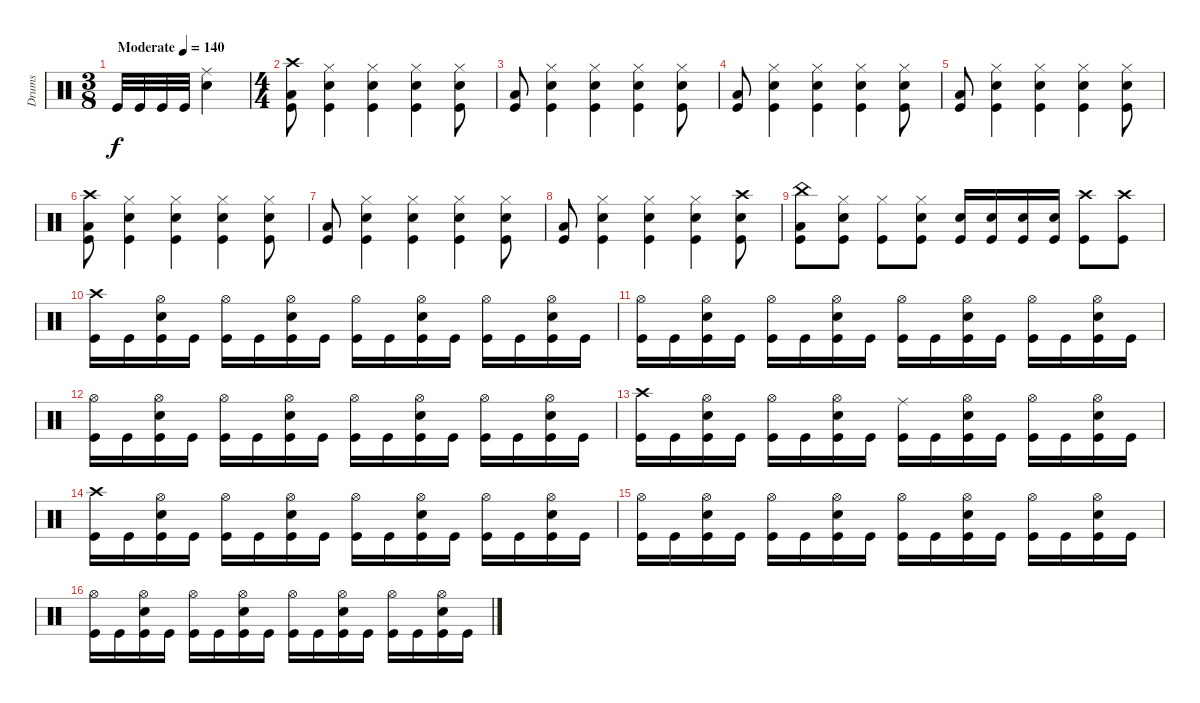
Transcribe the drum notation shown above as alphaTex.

\track ("Drums" "Drums") {instrument percussion}
\staff {score}
\articulation defaults
\ts (3 8)
\tempo (140 "Moderate")
\clef neutral
\ks c "Kick (hit)".32{dy f} "Kick (hit)".32 "Kick (hit)".32 "Kick (hit)".32
("Snare (hit) 2" "Ride (middle)").4 |
\ts (4 4)
("Kick (hit)" "Low Tom (hit)" "Crash high (hit)").8 ("Snare (hit) 2" "Hi-Hat (closed)" "Kick (hit)").4 ("Hi-Hat (closed)" "Snare (hit) 2" "Kick (hit)").4 ("Hi-Hat (closed)" "Snare (hit) 2" "Kick (hit)").4 ("Hi-Hat (closed)" "Snare (hit) 2" "Kick (hit)").8 |
("Kick (hit)" "Low Tom (hit)").8 ("Snare (hit) 2" "Hi-Hat (closed)" "Kick (hit)").4 ("Hi-Hat (closed)" "Snare (hit) 2" "Kick (hit)").4 ("Hi-Hat (closed)" "Snare (hit) 2" "Kick (hit)").4 ("Hi-Hat (closed)" "Snare (hit) 2" "Kick (hit)").8 |
("Kick (hit)" "Low Tom (hit)").8 ("Snare (hit) 2" "Hi-Hat (closed)" "Kick (hit)").4 ("Hi-Hat (closed)" "Snare (hit) 2" "Kick (hit)").4 ("Hi-Hat (closed)" "Snare (hit) 2" "Kick (hit)").4 ("Hi-Hat (closed)" "Snare (hit) 2" "Kick (hit)").8 |
("Kick (hit)" "Low Tom (hit)").8 ("Snare (hit) 2" "Hi-Hat (closed)" "Kick (hit)").4 ("Hi-Hat (closed)" "Snare (hit) 2" "Kick (hit)").4 ("Hi-Hat (closed)" "Snare (hit) 2" "Kick (hit)").4 ("Hi-Hat (closed)" "Snare (hit) 2" "Kick (hit)").8 |
("Kick (hit)" "Low Tom (hit)" "Crash high (hit)").8 ("Snare (hit) 2" "Hi-Hat (closed)" "Kick (hit)").4 ("Hi-Hat (closed)" "Snare (hit) 2" "Kick (hit)").4 ("Hi-Hat (closed)" "Snare (hit) 2" "Kick (hit)").4 ("Hi-Hat (closed)" "Snare (hit) 2" "Kick (hit)").8 |
("Kick (hit)" "Low Tom (hit)").8 ("Snare (hit) 2" "Hi-Hat (closed)" "Kick (hit)").4 ("Hi-Hat (closed)" "Snare (hit) 2" "Kick (hit)").4 ("Hi-Hat (closed)" "Snare (hit) 2" "Kick (hit)").4 ("Hi-Hat (closed)" "Snare (hit) 2" "Kick (hit)").8 |
("Kick (hit)" "Low Tom (hit)").8 ("Snare (hit) 2" "Hi-Hat (closed)" "Kick (hit)").4 ("Hi-Hat (closed)" "Snare (hit) 2" "Kick (hit)").4 ("Hi-Hat (closed)" "Snare (hit) 2" "Kick (hit)").4 ("Crash high (hit)" "Snare (hit) 2" "Kick (hit)").8 |
("Kick (hit)" "Low Tom (hit)" "China (hit)").8 ("Hi-Hat (closed)" "Kick (hit)" "Snare (hit) 2").8 ("Hi-Hat (closed)" "Kick (hit)").8 ("Hi-Hat (closed)" "Kick (hit)" "Snare (hit) 2").8 ("Snare (hit) 2" "Kick (hit)").16 ("Snare (hit) 2" "Kick (hit)").16 ("Snare (hit) 2" "Kick (hit)").16 ("Snare (hit) 2" "Kick (hit)").16 ("Crash high (hit)" "Kick (hit)").8 ("Crash high (hit)" "Kick (hit)").8 |
("Kick (hit)" "Crash high (hit)").16 "Kick (hit)".16 ("Kick (hit)" "Snare (hit) 2" "Hi-Hat (open)").16 "Kick (hit)".16 ("Kick (hit)" "Hi-Hat (open)").16 "Kick (hit)".16 ("Kick (hit)" "Snare (hit) 2" "Hi-Hat (open)").16 "Kick (hit)".16 ("Kick (hit)" "Hi-Hat (open)").16 "Kick (hit)".16 ("Kick (hit)" "Snare (hit) 2" "Hi-Hat (open)").16 "Kick (hit)".16 ("Kick (hit)" "Hi-Hat (open)").16 "Kick (hit)".16 ("Kick (hit)" "Snare (hit) 2" "Hi-Hat (open)").16 "Kick (hit)".16 |
("Kick (hit)" "Hi-Hat (open)").16 "Kick (hit)".16 ("Kick (hit)" "Snare (hit) 2" "Hi-Hat (open)").16 "Kick (hit)".16 ("Kick (hit)" "Hi-Hat (open)").16 "Kick (hit)".16 ("Kick (hit)" "Snare (hit) 2" "Hi-Hat (open)").16 "Kick (hit)".16 ("Kick (hit)" "Hi-Hat (open)").16 "Kick (hit)".16 ("Kick (hit)" "Snare (hit) 2" "Hi-Hat (open)").16 "Kick (hit)".16 ("Kick (hit)" "Hi-Hat (open)").16 "Kick (hit)".16 ("Kick (hit)" "Snare (hit) 2" "Hi-Hat (open)").16 "Kick (hit)".16 |
("Kick (hit)" "Hi-Hat (open)").16 "Kick (hit)".16 ("Kick (hit)" "Snare (hit) 2" "Hi-Hat (open)").16 "Kick (hit)".16 ("Kick (hit)" "Hi-Hat (open)").16 "Kick (hit)".16 ("Kick (hit)" "Snare (hit) 2" "Hi-Hat (open)").16 "Kick (hit)".16 ("Kick (hit)" "Hi-Hat (open)").16 "Kick (hit)".16 ("Kick (hit)" "Snare (hit) 2" "Hi-Hat (open)").16 "Kick (hit)".16 ("Kick (hit)" "Hi-Hat (open)").16 "Kick (hit)".16 ("Kick (hit)" "Snare (hit) 2" "Hi-Hat (open)").16 "Kick (hit)".16 |
("Kick (hit)" "Crash high (hit)").16 "Kick (hit)".16 ("Kick (hit)" "Snare (hit) 2" "Hi-Hat (open)").16 "Kick (hit)".16 ("Kick (hit)" "Hi-Hat (open)").16 "Kick (hit)".16 ("Kick (hit)" "Snare (hit) 2" "Hi-Hat (open)").16 "Kick (hit)".16 ("Kick (hit)" "Ride (middle)").16 "Kick (hit)".16 ("Kick (hit)" "Snare (hit) 2" "Hi-Hat (open)").16 "Kick (hit)".16 ("Kick (hit)" "Hi-Hat (open)").16 "Kick (hit)".16 ("Kick (hit)" "Snare (hit) 2" "Hi-Hat (open)").16 "Kick (hit)".16 |
("Kick (hit)" "Crash high (hit)").16 "Kick (hit)".16 ("Kick (hit)" "Snare (hit) 2" "Hi-Hat (open)").16 "Kick (hit)".16 ("Kick (hit)" "Hi-Hat (open)").16 "Kick (hit)".16 ("Kick (hit)" "Snare (hit) 2" "Hi-Hat (open)").16 "Kick (hit)".16 ("Kick (hit)" "Hi-Hat (open)").16 "Kick (hit)".16 ("Kick (hit)" "Snare (hit) 2" "Hi-Hat (open)").16 "Kick (hit)".16 ("Kick (hit)" "Hi-Hat (open)").16 "Kick (hit)".16 ("Kick (hit)" "Snare (hit) 2" "Hi-Hat (open)").16 "Kick (hit)".16 |
("Kick (hit)" "Hi-Hat (open)").16 "Kick (hit)".16 ("Kick (hit)" "Snare (hit) 2" "Hi-Hat (open)").16 "Kick (hit)".16 ("Kick (hit)" "Hi-Hat (open)").16 "Kick (hit)".16 ("Kick (hit)" "Snare (hit) 2" "Hi-Hat (open)").16 "Kick (hit)".16 ("Kick (hit)" "Hi-Hat (open)").16 "Kick (hit)".16 ("Kick (hit)" "Snare (hit) 2" "Hi-Hat (open)").16 "Kick (hit)".16 ("Kick (hit)" "Hi-Hat (open)").16 "Kick (hit)".16 ("Kick (hit)" "Snare (hit) 2" "Hi-Hat (open)").16 "Kick (hit)".16 |
("Kick (hit)" "Hi-Hat (open)").16 "Kick (hit)".16 ("Kick (hit)" "Snare (hit) 2" "Hi-Hat (open)").16 "Kick (hit)".16 ("Kick (hit)" "Hi-Hat (open)").16 "Kick (hit)".16 ("Kick (hit)" "Snare (hit) 2" "Hi-Hat (open)").16 "Kick (hit)".16 ("Kick (hit)" "Hi-Hat (open)").16 "Kick (hit)".16 ("Kick (hit)" "Snare (hit) 2" "Hi-Hat (open)").16 "Kick (hit)".16 ("Kick (hit)" "Hi-Hat (open)").16 "Kick (hit)".16 ("Kick (hit)" "Snare (hit) 2" "Hi-Hat (open)").16 "Kick (hit)".16
